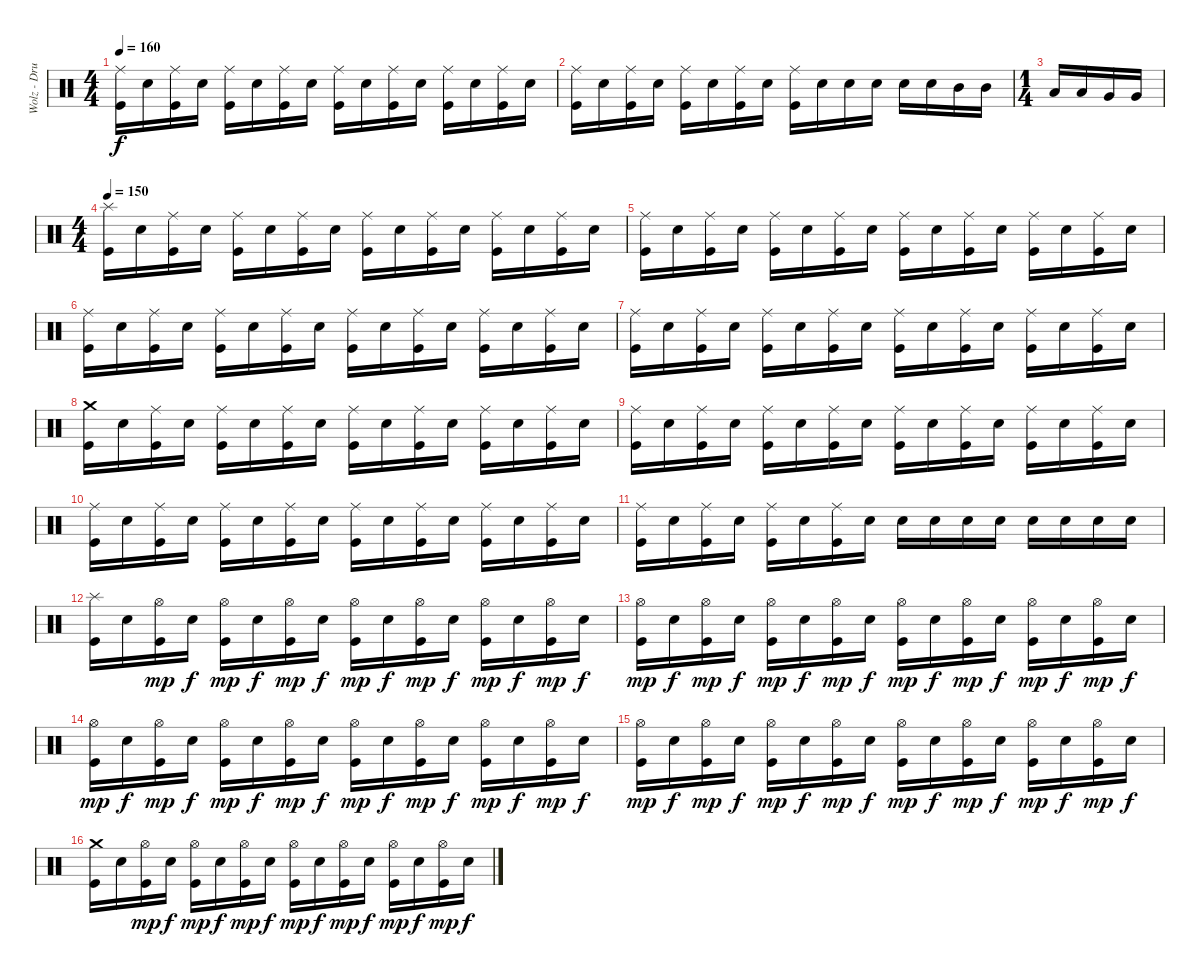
\track ("Wolz - Drums" "Wolz - Dru") {instrument percussion}
\staff {score}
\articulation defaults
\ts (4 4)
\tempo 160
\clef neutral
\ks c
("Ride (middle)" "Kick (hit)").16{dy f} "Electric Snare (hit)".16 ("Ride (middle)" "Kick (hit)").16 "Electric Snare (hit)".16 ("Ride (middle)" "Kick (hit)").16 "Electric Snare (hit)".16 ("Ride (middle)" "Kick (hit)").16 "Electric Snare (hit)".16 ("Ride (middle)" "Kick (hit)").16 "Electric Snare (hit)".16 ("Ride (middle)" "Kick (hit)").16 "Electric Snare (hit)".16 ("Ride (middle)" "Kick (hit)").16 "Electric Snare (hit)".16 ("Ride (middle)" "Kick (hit)").16 "Electric Snare (hit)".16 |
("Ride (middle)" "Kick (hit)").16 "Electric Snare (hit)".16 ("Ride (middle)" "Kick (hit)").16 "Electric Snare (hit)".16 ("Ride (middle)" "Kick (hit)").16 "Electric Snare (hit)".16 ("Ride (middle)" "Kick (hit)").16 "Electric Snare (hit)".16 ("Ride (middle)" "Kick (hit)").16 "Electric Snare (hit)".16 "Electric Snare (hit)".16 "Electric Snare (hit)".16 "Electric Snare (hit)".16 "Electric Snare (hit)".16 "Mid Tom (hit)".16 "Mid Tom (hit)".16 |
\ts (1 4)
"Low Tom (hit)".16 "Low Tom (hit)".16 "Very Low Tom (hit)".16 "Very Low Tom (hit)".16 |
\ts (4 4)
\tempo 150
("Splash (hit)" "Kick (hit)").16 "Electric Snare (hit)".16 ("Ride (middle)" "Kick (hit)").16 "Electric Snare (hit)".16 ("Ride (middle)" "Kick (hit)").16 "Electric Snare (hit)".16 ("Ride (middle)" "Kick (hit)").16 "Electric Snare (hit)".16 ("Ride (middle)" "Kick (hit)").16 "Electric Snare (hit)".16 ("Ride (middle)" "Kick (hit)").16 "Electric Snare (hit)".16 ("Ride (middle)" "Kick (hit)").16 "Electric Snare (hit)".16 ("Ride (middle)" "Kick (hit)").16 "Electric Snare (hit)".16 |
("Ride (middle)" "Kick (hit)").16 "Electric Snare (hit)".16 ("Ride (middle)" "Kick (hit)").16 "Electric Snare (hit)".16 ("Ride (middle)" "Kick (hit)").16 "Electric Snare (hit)".16 ("Ride (middle)" "Kick (hit)").16 "Electric Snare (hit)".16 ("Ride (middle)" "Kick (hit)").16 "Electric Snare (hit)".16 ("Ride (middle)" "Kick (hit)").16 "Electric Snare (hit)".16 ("Ride (middle)" "Kick (hit)").16 "Electric Snare (hit)".16 ("Ride (middle)" "Kick (hit)").16 "Electric Snare (hit)".16 |
("Ride (middle)" "Kick (hit)").16 "Electric Snare (hit)".16 ("Ride (middle)" "Kick (hit)").16 "Electric Snare (hit)".16 ("Ride (middle)" "Kick (hit)").16 "Electric Snare (hit)".16 ("Ride (middle)" "Kick (hit)").16 "Electric Snare (hit)".16 ("Ride (middle)" "Kick (hit)").16 "Electric Snare (hit)".16 ("Ride (middle)" "Kick (hit)").16 "Electric Snare (hit)".16 ("Ride (middle)" "Kick (hit)").16 "Electric Snare (hit)".16 ("Ride (middle)" "Kick (hit)").16 "Electric Snare (hit)".16 |
("Ride (middle)" "Kick (hit)").16 "Electric Snare (hit)".16 ("Ride (middle)" "Kick (hit)").16 "Electric Snare (hit)".16 ("Ride (middle)" "Kick (hit)").16 "Electric Snare (hit)".16 ("Ride (middle)" "Kick (hit)").16 "Electric Snare (hit)".16 ("Ride (middle)" "Kick (hit)").16 "Electric Snare (hit)".16 ("Ride (middle)" "Kick (hit)").16 "Electric Snare (hit)".16 ("Ride (middle)" "Kick (hit)").16 "Electric Snare (hit)".16 ("Ride (middle)" "Kick (hit)").16 "Electric Snare (hit)".16 |
("Crash medium (hit)" "Kick (hit)").16 "Electric Snare (hit)".16 ("Ride (middle)" "Kick (hit)").16 "Electric Snare (hit)".16 ("Ride (middle)" "Kick (hit)").16 "Electric Snare (hit)".16 ("Ride (middle)" "Kick (hit)").16 "Electric Snare (hit)".16 ("Ride (middle)" "Kick (hit)").16 "Electric Snare (hit)".16 ("Ride (middle)" "Kick (hit)").16 "Electric Snare (hit)".16 ("Ride (middle)" "Kick (hit)").16 "Electric Snare (hit)".16 ("Ride (middle)" "Kick (hit)").16 "Electric Snare (hit)".16 |
("Ride (middle)" "Kick (hit)").16 "Electric Snare (hit)".16 ("Ride (middle)" "Kick (hit)").16 "Electric Snare (hit)".16 ("Ride (middle)" "Kick (hit)").16 "Electric Snare (hit)".16 ("Ride (middle)" "Kick (hit)").16 "Electric Snare (hit)".16 ("Ride (middle)" "Kick (hit)").16 "Electric Snare (hit)".16 ("Ride (middle)" "Kick (hit)").16 "Electric Snare (hit)".16 ("Ride (middle)" "Kick (hit)").16 "Electric Snare (hit)".16 ("Ride (middle)" "Kick (hit)").16 "Electric Snare (hit)".16 |
("Ride (middle)" "Kick (hit)").16 "Electric Snare (hit)".16 ("Ride (middle)" "Kick (hit)").16 "Electric Snare (hit)".16 ("Ride (middle)" "Kick (hit)").16 "Electric Snare (hit)".16 ("Ride (middle)" "Kick (hit)").16 "Electric Snare (hit)".16 ("Ride (middle)" "Kick (hit)").16 "Electric Snare (hit)".16 ("Ride (middle)" "Kick (hit)").16 "Electric Snare (hit)".16 ("Ride (middle)" "Kick (hit)").16 "Electric Snare (hit)".16 ("Ride (middle)" "Kick (hit)").16 "Electric Snare (hit)".16 |
("Ride (middle)" "Kick (hit)").16 "Electric Snare (hit)".16 ("Ride (middle)" "Kick (hit)").16 "Electric Snare (hit)".16 ("Ride (middle)" "Kick (hit)").16 "Electric Snare (hit)".16 ("Ride (middle)" "Kick (hit)").16 "Electric Snare (hit)".16 "Electric Snare (hit)".16 "Electric Snare (hit)".16 "Electric Snare (hit)".16 "Electric Snare (hit)".16 "Electric Snare (hit)".16 "Electric Snare (hit)".16 "Electric Snare (hit)".16 "Electric Snare (hit)".16 |
("Splash (hit)" "Kick (hit)").16 "Electric Snare (hit)".16 ("Hi-Hat (open)" "Kick (hit)").16{dy mp} "Electric Snare (hit)".16{dy f} ("Hi-Hat (open)" "Kick (hit)").16{dy mp} "Electric Snare (hit)".16{dy f} ("Hi-Hat (open)" "Kick (hit)").16{dy mp} "Electric Snare (hit)".16{dy f} ("Hi-Hat (open)" "Kick (hit)").16{dy mp} "Electric Snare (hit)".16{dy f} ("Hi-Hat (open)" "Kick (hit)").16{dy mp} "Electric Snare (hit)".16{dy f} ("Hi-Hat (open)" "Kick (hit)").16{dy mp} "Electric Snare (hit)".16{dy f} ("Hi-Hat (open)" "Kick (hit)").16{dy mp} "Electric Snare (hit)".16{dy f} |
("Hi-Hat (open)" "Kick (hit)").16{dy mp} "Electric Snare (hit)".16{dy f} ("Hi-Hat (open)" "Kick (hit)").16{dy mp} "Electric Snare (hit)".16{dy f} ("Hi-Hat (open)" "Kick (hit)").16{dy mp} "Electric Snare (hit)".16{dy f} ("Hi-Hat (open)" "Kick (hit)").16{dy mp} "Electric Snare (hit)".16{dy f} ("Hi-Hat (open)" "Kick (hit)").16{dy mp} "Electric Snare (hit)".16{dy f} ("Hi-Hat (open)" "Kick (hit)").16{dy mp} "Electric Snare (hit)".16{dy f} ("Hi-Hat (open)" "Kick (hit)").16{dy mp} "Electric Snare (hit)".16{dy f} ("Hi-Hat (open)" "Kick (hit)").16{dy mp} "Electric Snare (hit)".16{dy f} |
("Hi-Hat (open)" "Kick (hit)").16{dy mp} "Electric Snare (hit)".16{dy f} ("Hi-Hat (open)" "Kick (hit)").16{dy mp} "Electric Snare (hit)".16{dy f} ("Hi-Hat (open)" "Kick (hit)").16{dy mp} "Electric Snare (hit)".16{dy f} ("Hi-Hat (open)" "Kick (hit)").16{dy mp} "Electric Snare (hit)".16{dy f} ("Hi-Hat (open)" "Kick (hit)").16{dy mp} "Electric Snare (hit)".16{dy f} ("Hi-Hat (open)" "Kick (hit)").16{dy mp} "Electric Snare (hit)".16{dy f} ("Hi-Hat (open)" "Kick (hit)").16{dy mp} "Electric Snare (hit)".16{dy f} ("Hi-Hat (open)" "Kick (hit)").16{dy mp} "Electric Snare (hit)".16{dy f} |
("Hi-Hat (open)" "Kick (hit)").16{dy mp} "Electric Snare (hit)".16{dy f} ("Hi-Hat (open)" "Kick (hit)").16{dy mp} "Electric Snare (hit)".16{dy f} ("Hi-Hat (open)" "Kick (hit)").16{dy mp} "Electric Snare (hit)".16{dy f} ("Hi-Hat (open)" "Kick (hit)").16{dy mp} "Electric Snare (hit)".16{dy f} ("Hi-Hat (open)" "Kick (hit)").16{dy mp} "Electric Snare (hit)".16{dy f} ("Hi-Hat (open)" "Kick (hit)").16{dy mp} "Electric Snare (hit)".16{dy f} ("Hi-Hat (open)" "Kick (hit)").16{dy mp} "Electric Snare (hit)".16{dy f} ("Hi-Hat (open)" "Kick (hit)").16{dy mp} "Electric Snare (hit)".16{dy f} |
("Crash medium (hit)" "Kick (hit)").16 "Electric Snare (hit)".16 ("Hi-Hat (open)" "Kick (hit)").16{dy mp} "Electric Snare (hit)".16{dy f} ("Hi-Hat (open)" "Kick (hit)").16{dy mp} "Electric Snare (hit)".16{dy f} ("Hi-Hat (open)" "Kick (hit)").16{dy mp} "Electric Snare (hit)".16{dy f} ("Hi-Hat (open)" "Kick (hit)").16{dy mp} "Electric Snare (hit)".16{dy f} ("Hi-Hat (open)" "Kick (hit)").16{dy mp} "Electric Snare (hit)".16{dy f} ("Hi-Hat (open)" "Kick (hit)").16{dy mp} "Electric Snare (hit)".16{dy f} ("Hi-Hat (open)" "Kick (hit)").16{dy mp} "Electric Snare (hit)".16{dy f}
